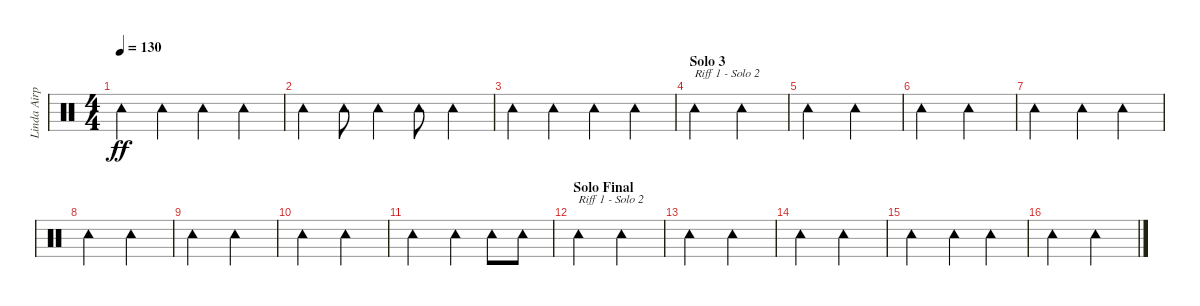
\track ("Linda Airplane" "Linda Airp") {instrument percussion}
\staff {score}
\articulation defaults
\ts (4 4)
\tempo 130
\clef neutral
\ks c "Tambourine (hit)".4{dy ff} "Tambourine (hit)".4 "Tambourine (hit)".4 "Tambourine (hit)".4
|
"Tambourine (hit)".4 "Tambourine (hit)".8 "Tambourine (hit)".4 "Tambourine (hit)".8 "Tambourine (hit)".4 |
"Tambourine (hit)".4 "Tambourine (hit)".4 "Tambourine (hit)".4 "Tambourine (hit)".4 |
\section ("" "Solo 3")
"Tambourine (hit)".2{txt "Riff 1 - Solo 2"} "Tambourine (hit)".2 |
"Tambourine (hit)".2 "Tambourine (hit)".2 |
"Tambourine (hit)".2 "Tambourine (hit)".2 |
"Tambourine (hit)".2 "Tambourine (hit)".4 "Tambourine (hit)".4 |
"Tambourine (hit)".2 "Tambourine (hit)".2 |
"Tambourine (hit)".2 "Tambourine (hit)".2 |
"Tambourine (hit)".2 "Tambourine (hit)".2 |
"Tambourine (hit)".2 "Tambourine (hit)".4 "Tambourine (hit)".8 "Tambourine (hit)".8 |
\section ("" "Solo Final")
"Tambourine (hit)".2{txt "Riff 1 - Solo 2"} "Tambourine (hit)".2 |
"Tambourine (hit)".2 "Tambourine (hit)".2 |
"Tambourine (hit)".2 "Tambourine (hit)".2 |
"Tambourine (hit)".2 "Tambourine (hit)".4 "Tambourine (hit)".4 |
"Tambourine (hit)".2 "Tambourine (hit)".2
